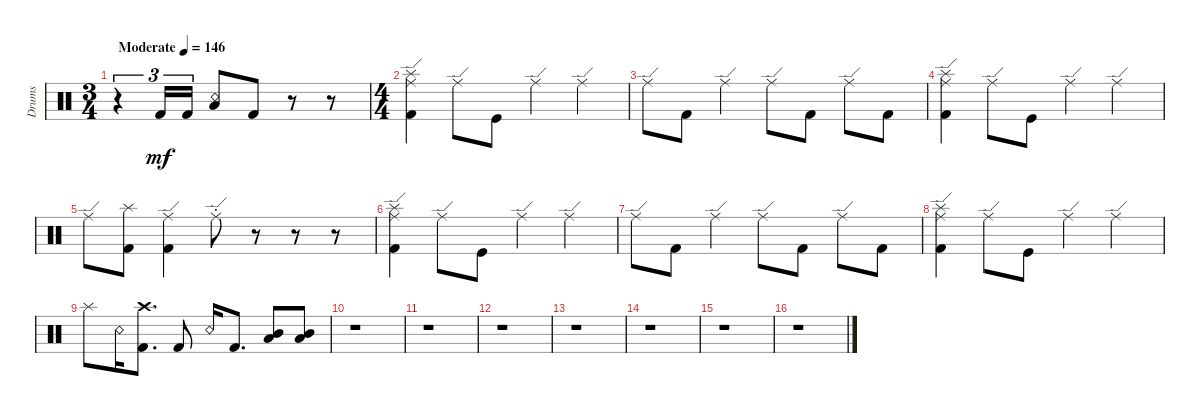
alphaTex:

\track ("Drums" "Drums") {instrument percussion}
\staff {score}
\articulation defaults
\ts (3 4)
\tempo (146 "Moderate")
\clef neutral
\ks c
r.4{tu (3 2) dy mf} "Kick (hit) 2".16{tu (3 2)} "Kick (hit) 2".16{tu (3 2)} ("Low Tom (hit)" "Snare (rim shot)").8 "Kick (hit) 2".8 r.8 r.8 |
\ts (4 4)
("Splash (hit)" "Ride (edge)" "Kick (hit) 2").4 "Ride (edge)".8 "Kick (hit)".8 "Ride (edge)".4 "Ride (edge)".4 |
"Ride (edge)".8 "Kick (hit) 2".8 "Ride (edge)".4 "Ride (edge)".8 "Kick (hit) 2".8 "Ride (edge)".8 "Kick (hit) 2".8 |
("Splash (hit)" "Ride (edge)" "Kick (hit) 2").4 "Ride (edge)".8 "Kick (hit)".8 "Ride (edge)".4 "Ride (edge)".4 |
"Ride (edge)".8 ("Splash (hit)" "Kick (hit) 2").8 ("Ride (edge)" "Kick (hit) 2").4 "Ride (edge)"{st}.8 r.8 r.8 r.8 |
("Splash (hit)" "Ride (edge)" "Kick (hit) 2").4 "Ride (edge)".8 "Kick (hit)".8 "Ride (edge)".4 "Ride (edge)".4 |
"Ride (edge)".8 "Kick (hit) 2".8 "Ride (edge)".4 "Ride (edge)".8 "Kick (hit) 2".8 "Ride (edge)".8 "Kick (hit) 2".8 |
("Splash (hit)" "Ride (edge)" "Kick (hit) 2").4 "Ride (edge)".8 "Kick (hit)".8 "Ride (edge)".4 "Ride (edge)".4 |
"Splash (hit)".8 "Snare (rim shot)".16 ("Crash high (hit)" "Kick (hit) 2").8{d} "Kick (hit) 2".8 "Snare (rim shot)".16 "Kick (hit) 2".8{d} ("Mid Tom (hit)" "Low Tom (hit)").8 ("Mid Tom (hit)" "Low Tom (hit)").8 |
r.1 |
r.1 |
r.1 |
r.1 |
r.1 |
r.1 |
r.1
